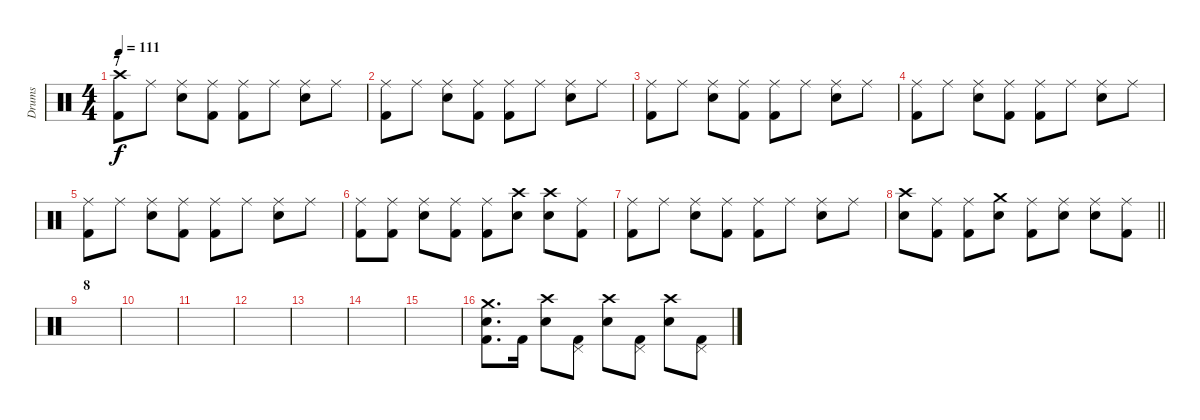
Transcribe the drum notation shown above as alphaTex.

\track ("Drums" "Drums") {instrument percussion}
\staff {score}
\articulation defaults
\ts (4 4)
\section ("" "7")
\tempo 111
\clef neutral
\ks c
("Crash high (hit)" "Kick (hit) 2").8{dy f} "Ride (middle)".8 ("Ride (middle)" "Snare (hit) 2").8 ("Ride (middle)" "Kick (hit) 2").8 ("Ride (middle)" "Kick (hit) 2").8 "Ride (middle)".8 ("Ride (middle)" "Snare (hit) 2").8 "Ride (middle)".8 |
("Ride (middle)" "Kick (hit) 2").8 "Ride (middle)".8 ("Ride (middle)" "Snare (hit) 2").8 ("Ride (middle)" "Kick (hit) 2").8 ("Ride (middle)" "Kick (hit) 2").8 "Ride (middle)".8 ("Ride (middle)" "Snare (hit) 2").8 "Ride (middle)".8 |
("Ride (middle)" "Kick (hit) 2").8 "Ride (middle)".8 ("Ride (middle)" "Snare (hit) 2").8 ("Ride (middle)" "Kick (hit) 2").8 ("Ride (middle)" "Kick (hit) 2").8 "Ride (middle)".8 ("Ride (middle)" "Snare (hit) 2").8 "Ride (middle)".8 |
("Ride (middle)" "Kick (hit) 2").8 "Ride (middle)".8 ("Ride (middle)" "Snare (hit) 2").8 ("Ride (middle)" "Kick (hit) 2").8 ("Ride (middle)" "Kick (hit) 2").8 "Ride (middle)".8 ("Ride (middle)" "Snare (hit) 2").8 "Ride (middle)".8 |
("Ride (middle)" "Kick (hit) 2").8 "Ride (middle)".8 ("Ride (middle)" "Snare (hit) 2").8 ("Ride (middle)" "Kick (hit) 2").8 ("Ride (middle)" "Kick (hit) 2").8 "Ride (middle)".8 ("Ride (middle)" "Snare (hit) 2").8 "Ride (middle)".8 |
("Ride (middle)" "Kick (hit) 2").8 ("Ride (middle)" "Kick (hit) 2").8 ("Ride (middle)" "Snare (hit) 2").8 ("Ride (middle)" "Kick (hit) 2").8 ("Ride (middle)" "Kick (hit) 2").8 ("Crash high (hit)" "Snare (hit) 2").8 ("Crash high (hit)" "Snare (hit) 2").8 ("Ride (middle)" "Kick (hit) 2").8 |
("Ride (middle)" "Kick (hit) 2").8 "Ride (middle)".8 ("Ride (middle)" "Snare (hit) 2").8 ("Ride (middle)" "Kick (hit) 2").8 ("Ride (middle)" "Kick (hit) 2").8 "Ride (middle)".8 ("Ride (middle)" "Snare (hit) 2").8 "Ride (middle)".8 |
\barLineRight lightlight
("Crash high (hit)" "Snare (hit) 2").8 ("Ride (middle)" "Kick (hit) 2").8 ("Ride (middle)" "Kick (hit) 2").8 ("Crash medium (hit)" "Snare (hit) 2").8 ("Ride (middle)" "Kick (hit) 2").8 ("Ride (middle)" "Snare (hit) 2").8 ("Ride (middle)" "Snare (hit) 2").8 ("Ride (middle)" "Kick (hit) 2").8 |
\section ("" "8")
|
|
|
|
|
|
|
("Crash medium (hit)" "Snare (hit) 2" "Kick (hit) 2").8{d} "Kick (hit) 2".16 ("Crash high (hit)" "Snare (hit) 2").8 ("Pedal Hi-Hat (hit)" "Kick (hit) 2").8 ("Crash high (hit)" "Snare (hit) 2").8 ("Pedal Hi-Hat (hit)" "Kick (hit) 2").8 ("Crash high (hit)" "Snare (hit) 2").8 ("Pedal Hi-Hat (hit)" "Kick (hit) 2").8
